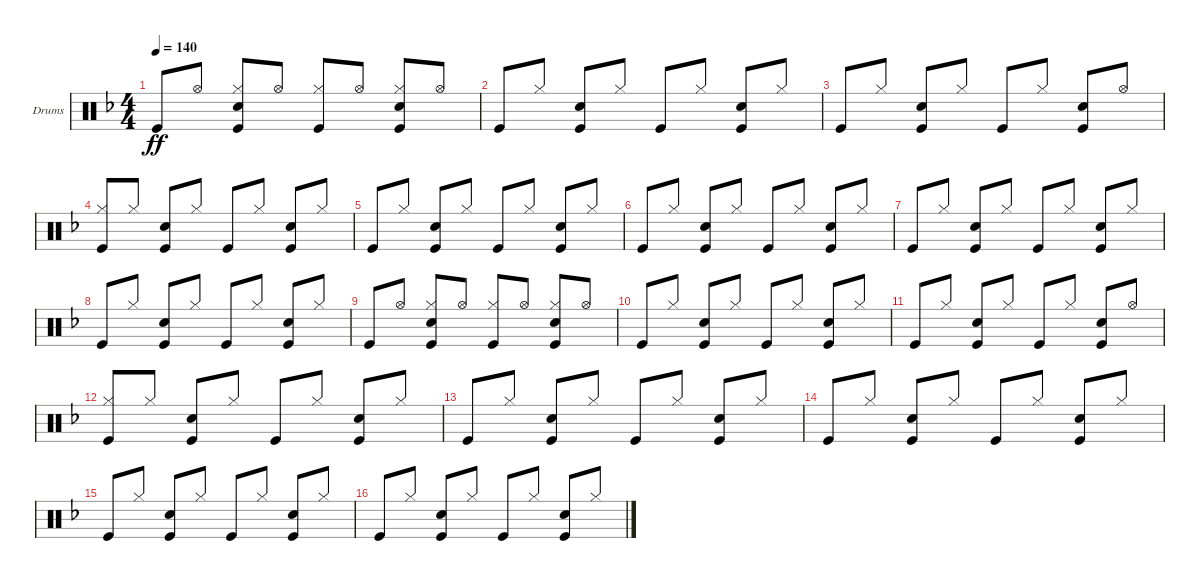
\defaultSystemsLayout 4
\bracketExtendMode groupsimilarinstruments
\firstSystemTrackNameOrientation horizontal
\otherSystemsTrackNameOrientation horizontal
\track ("Drumkit" "Drums") {instrument percussion}
\staff {score}
\articulation defaults
\ts (4 4)
\tempo 140
\clef neutral
\ks f "Kick (hit)".8{dy ff beam invert} "Hi-Hat (open)".8
("Snare (hit) 2" "Hi-Hat (closed)" "Kick (hit)").8{beam invert} "Hi-Hat (open)".8 ("Kick (hit)" "Hi-Hat (closed)").8{beam invert} "Hi-Hat (open)".8 ("Snare (hit) 2" "Hi-Hat (closed)" "Kick (hit)").8{beam invert} "Hi-Hat (open)".8 |
"Kick (hit)".8{beam invert} "Hi-Hat (closed)".8 ("Snare (hit) 2" "Kick (hit)").8{beam invert} "Hi-Hat (closed)".8 "Kick (hit)".8{beam invert} "Hi-Hat (closed)".8 ("Snare (hit) 2" "Kick (hit)").8{beam invert} "Hi-Hat (closed)".8 |
"Kick (hit)".8{beam invert} "Hi-Hat (closed)".8 ("Snare (hit) 2" "Kick (hit)").8{beam invert} "Hi-Hat (closed)".8 "Kick (hit)".8{beam invert} "Hi-Hat (closed)".8 ("Snare (hit) 2" "Kick (hit)").8{beam invert} "Hi-Hat (open)".8 |
("Kick (hit)" "Hi-Hat (closed)").8{beam invert} "Hi-Hat (closed)".8 ("Snare (hit) 2" "Kick (hit)").8{beam invert} "Hi-Hat (closed)".8 "Kick (hit)".8{beam invert} "Hi-Hat (closed)".8 ("Snare (hit) 2" "Kick (hit)").8{beam invert} "Hi-Hat (closed)".8 |
"Kick (hit)".8{beam invert} "Hi-Hat (closed)".8 ("Snare (hit) 2" "Kick (hit)").8{beam invert} "Hi-Hat (closed)".8 "Kick (hit)".8{beam invert} "Hi-Hat (closed)".8 ("Snare (hit) 2" "Kick (hit)").8{beam invert} "Hi-Hat (closed)".8 |
"Kick (hit)".8{beam invert} "Hi-Hat (closed)".8 ("Snare (hit) 2" "Kick (hit)").8{beam invert} "Hi-Hat (closed)".8 "Kick (hit)".8{beam invert} "Hi-Hat (closed)".8 ("Snare (hit) 2" "Kick (hit)").8{beam invert} "Hi-Hat (closed)".8 |
"Kick (hit)".8{beam invert} "Hi-Hat (closed)".8 ("Snare (hit) 2" "Kick (hit)").8{beam invert} "Hi-Hat (closed)".8 "Kick (hit)".8{beam invert} "Hi-Hat (closed)".8 ("Snare (hit) 2" "Kick (hit)").8{beam invert} "Hi-Hat (closed)".8 |
"Kick (hit)".8{beam invert} "Hi-Hat (closed)".8 ("Snare (hit) 2" "Kick (hit)").8{beam invert} "Hi-Hat (closed)".8 "Kick (hit)".8{beam invert} "Hi-Hat (closed)".8 ("Snare (hit) 2" "Kick (hit)").8{beam invert} "Hi-Hat (closed)".8 |
"Kick (hit)".8{beam invert} "Hi-Hat (open)".8 ("Snare (hit) 2" "Hi-Hat (closed)" "Kick (hit)").8{beam invert} "Hi-Hat (open)".8 ("Kick (hit)" "Hi-Hat (closed)").8{beam invert} "Hi-Hat (open)".8 ("Snare (hit) 2" "Hi-Hat (closed)" "Kick (hit)").8{beam invert} "Hi-Hat (open)".8 |
"Kick (hit)".8{beam invert} "Hi-Hat (closed)".8 ("Snare (hit) 2" "Kick (hit)").8{beam invert} "Hi-Hat (closed)".8 "Kick (hit)".8{beam invert} "Hi-Hat (closed)".8 ("Snare (hit) 2" "Kick (hit)").8{beam invert} "Hi-Hat (closed)".8 |
"Kick (hit)".8{beam invert} "Hi-Hat (closed)".8 ("Snare (hit) 2" "Kick (hit)").8{beam invert} "Hi-Hat (closed)".8 "Kick (hit)".8{beam invert} "Hi-Hat (closed)".8 ("Snare (hit) 2" "Kick (hit)").8{beam invert} "Hi-Hat (open)".8 |
("Kick (hit)" "Hi-Hat (closed)").8{beam invert} "Hi-Hat (closed)".8 ("Snare (hit) 2" "Kick (hit)").8{beam invert} "Hi-Hat (closed)".8 "Kick (hit)".8{beam invert} "Hi-Hat (closed)".8 ("Snare (hit) 2" "Kick (hit)").8{beam invert} "Hi-Hat (closed)".8 |
"Kick (hit)".8{beam invert} "Hi-Hat (closed)".8 ("Snare (hit) 2" "Kick (hit)").8{beam invert} "Hi-Hat (closed)".8 "Kick (hit)".8{beam invert} "Hi-Hat (closed)".8 ("Snare (hit) 2" "Kick (hit)").8{beam invert} "Hi-Hat (closed)".8 |
"Kick (hit)".8{beam invert} "Hi-Hat (closed)".8 ("Snare (hit) 2" "Kick (hit)").8{beam invert} "Hi-Hat (closed)".8 "Kick (hit)".8{beam invert} "Hi-Hat (closed)".8 ("Snare (hit) 2" "Kick (hit)").8{beam invert} "Hi-Hat (closed)".8 |
"Kick (hit)".8{beam invert} "Hi-Hat (closed)".8 ("Snare (hit) 2" "Kick (hit)").8{beam invert} "Hi-Hat (closed)".8 "Kick (hit)".8{beam invert} "Hi-Hat (closed)".8 ("Snare (hit) 2" "Kick (hit)").8{beam invert} "Hi-Hat (closed)".8 |
"Kick (hit)".8{beam invert} "Hi-Hat (closed)".8 ("Snare (hit) 2" "Kick (hit)").8{beam invert} "Hi-Hat (closed)".8 "Kick (hit)".8{beam invert} "Hi-Hat (closed)".8 ("Snare (hit) 2" "Kick (hit)").8{beam invert} "Hi-Hat (closed)".8
